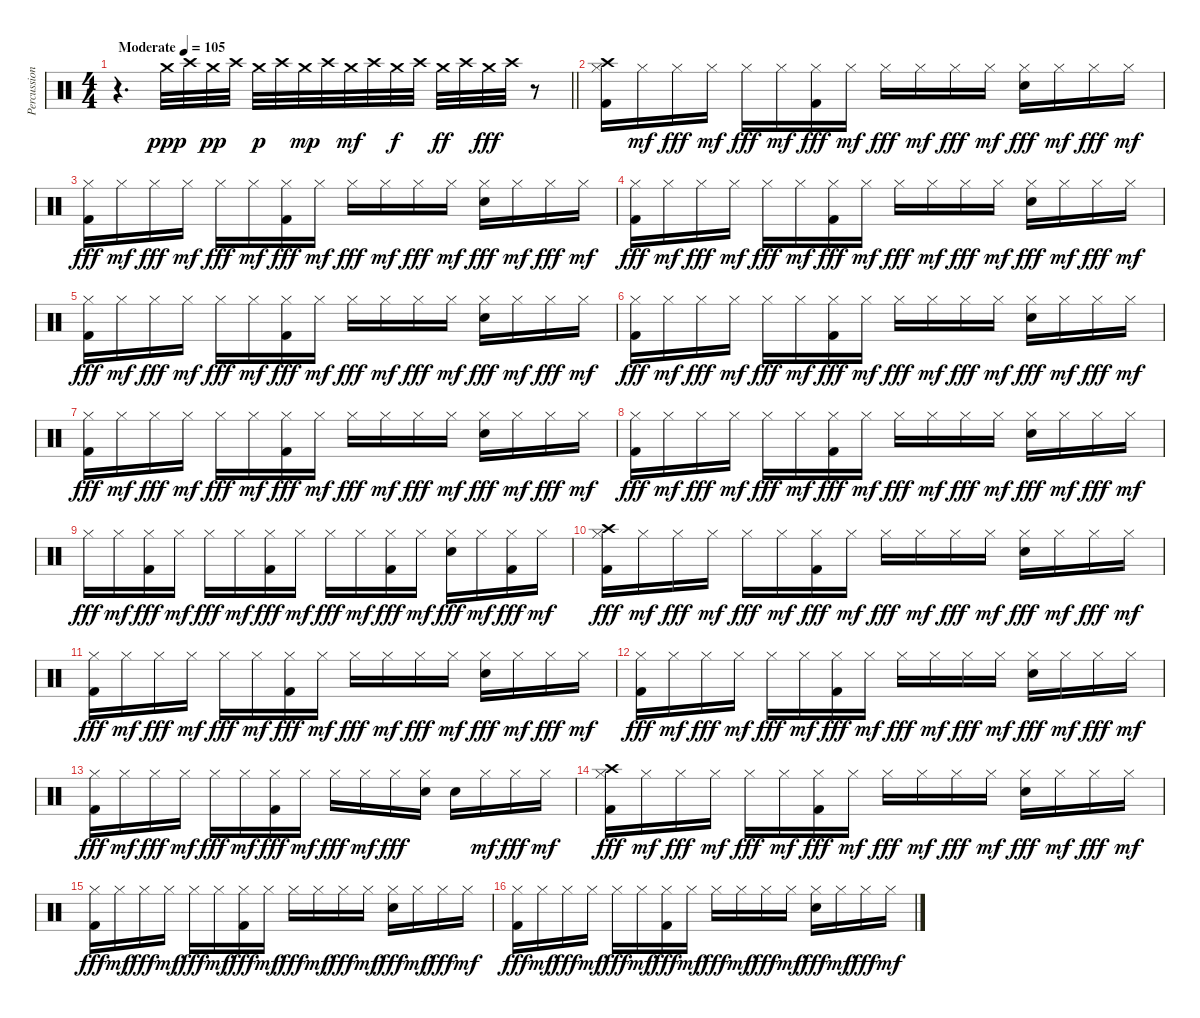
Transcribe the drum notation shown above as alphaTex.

\track ("Percussion" "Percussion") {instrument percussion}
\staff {score}
\articulation defaults
\ts (4 4)
\tempo (105 "Moderate")
\clef neutral
\barLineRight lightlight
\ks c
r.4{d dy ppp} "Crash medium (hit)".32 "Crash high (hit)".32 "Crash medium (hit)".32{dy pp} "Crash high (hit)".32 "Crash medium (hit)".32{dy p} "Crash high (hit)".32 "Crash medium (hit)".32{dy mp} "Crash high (hit)".32 "Crash medium (hit)".32{dy mf} "Crash high (hit)".32 "Crash medium (hit)".32{dy f} "Crash high (hit)".32 "Crash medium (hit)".32{dy ff} "Crash high (hit)".32 "Crash medium (hit)".32{dy fff} "Crash high (hit)".32 r.8 |
("Crash high (hit)" "Hi-Hat (closed)" "Kick (hit) 2").16 "Hi-Hat (closed)".16{dy mf} "Hi-Hat (closed)".16{dy fff} "Hi-Hat (closed)".16{dy mf} "Hi-Hat (closed)".16{dy fff} "Hi-Hat (closed)".16{dy mf} ("Hi-Hat (closed)" "Kick (hit) 2").16{dy fff} "Hi-Hat (closed)".16{dy mf} "Hi-Hat (closed)".16{dy fff} "Hi-Hat (closed)".16{dy mf} "Hi-Hat (closed)".16{dy fff} "Hi-Hat (closed)".16{dy mf} ("Hi-Hat (closed)" "Electric Snare (hit)").16{dy fff} "Hi-Hat (closed)".16{dy mf} "Hi-Hat (closed)".16{dy fff} "Hi-Hat (closed)".16{dy mf} |
("Hi-Hat (closed)" "Kick (hit) 2").16{dy fff} "Hi-Hat (closed)".16{dy mf} "Hi-Hat (closed)".16{dy fff} "Hi-Hat (closed)".16{dy mf} "Hi-Hat (closed)".16{dy fff} "Hi-Hat (closed)".16{dy mf} ("Hi-Hat (closed)" "Kick (hit) 2").16{dy fff} "Hi-Hat (closed)".16{dy mf} "Hi-Hat (closed)".16{dy fff} "Hi-Hat (closed)".16{dy mf} "Hi-Hat (closed)".16{dy fff} "Hi-Hat (closed)".16{dy mf} ("Hi-Hat (closed)" "Electric Snare (hit)").16{dy fff} "Hi-Hat (closed)".16{dy mf} "Hi-Hat (closed)".16{dy fff} "Hi-Hat (closed)".16{dy mf} |
("Hi-Hat (closed)" "Kick (hit) 2").16{dy fff} "Hi-Hat (closed)".16{dy mf} "Hi-Hat (closed)".16{dy fff} "Hi-Hat (closed)".16{dy mf} "Hi-Hat (closed)".16{dy fff} "Hi-Hat (closed)".16{dy mf} ("Hi-Hat (closed)" "Kick (hit) 2").16{dy fff} "Hi-Hat (closed)".16{dy mf} "Hi-Hat (closed)".16{dy fff} "Hi-Hat (closed)".16{dy mf} "Hi-Hat (closed)".16{dy fff} "Hi-Hat (closed)".16{dy mf} ("Hi-Hat (closed)" "Electric Snare (hit)").16{dy fff} "Hi-Hat (closed)".16{dy mf} "Hi-Hat (closed)".16{dy fff} "Hi-Hat (closed)".16{dy mf} |
("Hi-Hat (closed)" "Kick (hit) 2").16{dy fff} "Hi-Hat (closed)".16{dy mf} "Hi-Hat (closed)".16{dy fff} "Hi-Hat (closed)".16{dy mf} "Hi-Hat (closed)".16{dy fff} "Hi-Hat (closed)".16{dy mf} ("Hi-Hat (closed)" "Kick (hit) 2").16{dy fff} "Hi-Hat (closed)".16{dy mf} "Hi-Hat (closed)".16{dy fff} "Hi-Hat (closed)".16{dy mf} "Hi-Hat (closed)".16{dy fff} "Hi-Hat (closed)".16{dy mf} ("Hi-Hat (closed)" "Electric Snare (hit)").16{dy fff} "Hi-Hat (closed)".16{dy mf} "Hi-Hat (closed)".16{dy fff} "Hi-Hat (closed)".16{dy mf} |
("Hi-Hat (closed)" "Kick (hit) 2").16{dy fff} "Hi-Hat (closed)".16{dy mf} "Hi-Hat (closed)".16{dy fff} "Hi-Hat (closed)".16{dy mf} "Hi-Hat (closed)".16{dy fff} "Hi-Hat (closed)".16{dy mf} ("Hi-Hat (closed)" "Kick (hit) 2").16{dy fff} "Hi-Hat (closed)".16{dy mf} "Hi-Hat (closed)".16{dy fff} "Hi-Hat (closed)".16{dy mf} "Hi-Hat (closed)".16{dy fff} "Hi-Hat (closed)".16{dy mf} ("Hi-Hat (closed)" "Electric Snare (hit)").16{dy fff} "Hi-Hat (closed)".16{dy mf} "Hi-Hat (closed)".16{dy fff} "Hi-Hat (closed)".16{dy mf} |
("Hi-Hat (closed)" "Kick (hit) 2").16{dy fff} "Hi-Hat (closed)".16{dy mf} "Hi-Hat (closed)".16{dy fff} "Hi-Hat (closed)".16{dy mf} "Hi-Hat (closed)".16{dy fff} "Hi-Hat (closed)".16{dy mf} ("Hi-Hat (closed)" "Kick (hit) 2").16{dy fff} "Hi-Hat (closed)".16{dy mf} "Hi-Hat (closed)".16{dy fff} "Hi-Hat (closed)".16{dy mf} "Hi-Hat (closed)".16{dy fff} "Hi-Hat (closed)".16{dy mf} ("Hi-Hat (closed)" "Electric Snare (hit)").16{dy fff} "Hi-Hat (closed)".16{dy mf} "Hi-Hat (closed)".16{dy fff} "Hi-Hat (closed)".16{dy mf} |
("Hi-Hat (closed)" "Kick (hit) 2").16{dy fff} "Hi-Hat (closed)".16{dy mf} "Hi-Hat (closed)".16{dy fff} "Hi-Hat (closed)".16{dy mf} "Hi-Hat (closed)".16{dy fff} "Hi-Hat (closed)".16{dy mf} ("Hi-Hat (closed)" "Kick (hit) 2").16{dy fff} "Hi-Hat (closed)".16{dy mf} "Hi-Hat (closed)".16{dy fff} "Hi-Hat (closed)".16{dy mf} "Hi-Hat (closed)".16{dy fff} "Hi-Hat (closed)".16{dy mf} ("Hi-Hat (closed)" "Electric Snare (hit)").16{dy fff} "Hi-Hat (closed)".16{dy mf} "Hi-Hat (closed)".16{dy fff} "Hi-Hat (closed)".16{dy mf} |
"Hi-Hat (closed)".16{dy fff} "Hi-Hat (closed)".16{dy mf} ("Hi-Hat (closed)" "Kick (hit) 2").16{dy fff} "Hi-Hat (closed)".16{dy mf} "Hi-Hat (closed)".16{dy fff} "Hi-Hat (closed)".16{dy mf} ("Hi-Hat (closed)" "Kick (hit) 2").16{dy fff} "Hi-Hat (closed)".16{dy mf} "Hi-Hat (closed)".16{dy fff} "Hi-Hat (closed)".16{dy mf} ("Hi-Hat (closed)" "Kick (hit) 2").16{dy fff} "Hi-Hat (closed)".16{dy mf} ("Hi-Hat (closed)" "Electric Snare (hit)").16{dy fff} "Hi-Hat (closed)".16{dy mf} ("Hi-Hat (closed)" "Kick (hit) 2").16{dy fff} "Hi-Hat (closed)".16{dy mf} |
("Crash high (hit)" "Hi-Hat (closed)" "Kick (hit) 2").16{dy fff} "Hi-Hat (closed)".16{dy mf} "Hi-Hat (closed)".16{dy fff} "Hi-Hat (closed)".16{dy mf} "Hi-Hat (closed)".16{dy fff} "Hi-Hat (closed)".16{dy mf} ("Hi-Hat (closed)" "Kick (hit) 2").16{dy fff} "Hi-Hat (closed)".16{dy mf} "Hi-Hat (closed)".16{dy fff} "Hi-Hat (closed)".16{dy mf} "Hi-Hat (closed)".16{dy fff} "Hi-Hat (closed)".16{dy mf} ("Hi-Hat (closed)" "Electric Snare (hit)").16{dy fff} "Hi-Hat (closed)".16{dy mf} "Hi-Hat (closed)".16{dy fff} "Hi-Hat (closed)".16{dy mf} |
("Hi-Hat (closed)" "Kick (hit) 2").16{dy fff} "Hi-Hat (closed)".16{dy mf} "Hi-Hat (closed)".16{dy fff} "Hi-Hat (closed)".16{dy mf} "Hi-Hat (closed)".16{dy fff} "Hi-Hat (closed)".16{dy mf} ("Hi-Hat (closed)" "Kick (hit) 2").16{dy fff} "Hi-Hat (closed)".16{dy mf} "Hi-Hat (closed)".16{dy fff} "Hi-Hat (closed)".16{dy mf} "Hi-Hat (closed)".16{dy fff} "Hi-Hat (closed)".16{dy mf} ("Hi-Hat (closed)" "Electric Snare (hit)").16{dy fff} "Hi-Hat (closed)".16{dy mf} "Hi-Hat (closed)".16{dy fff} "Hi-Hat (closed)".16{dy mf} |
("Hi-Hat (closed)" "Kick (hit) 2").16{dy fff} "Hi-Hat (closed)".16{dy mf} "Hi-Hat (closed)".16{dy fff} "Hi-Hat (closed)".16{dy mf} "Hi-Hat (closed)".16{dy fff} "Hi-Hat (closed)".16{dy mf} ("Hi-Hat (closed)" "Kick (hit) 2").16{dy fff} "Hi-Hat (closed)".16{dy mf} "Hi-Hat (closed)".16{dy fff} "Hi-Hat (closed)".16{dy mf} "Hi-Hat (closed)".16{dy fff} "Hi-Hat (closed)".16{dy mf} ("Hi-Hat (closed)" "Electric Snare (hit)").16{dy fff} "Hi-Hat (closed)".16{dy mf} "Hi-Hat (closed)".16{dy fff} "Hi-Hat (closed)".16{dy mf} |
("Hi-Hat (closed)" "Kick (hit) 2").16{dy fff} "Hi-Hat (closed)".16{dy mf} "Hi-Hat (closed)".16{dy fff} "Hi-Hat (closed)".16{dy mf} "Hi-Hat (closed)".16{dy fff} "Hi-Hat (closed)".16{dy mf} ("Hi-Hat (closed)" "Kick (hit) 2").16{dy fff} "Hi-Hat (closed)".16{dy mf} "Hi-Hat (closed)".16{dy fff} "Hi-Hat (closed)".16{dy mf} "Hi-Hat (closed)".16{dy fff} ("Hi-Hat (closed)" "Electric Snare (hit)").16 "Electric Snare (hit)".16 "Hi-Hat (closed)".16{dy mf} "Hi-Hat (closed)".16{dy fff} "Hi-Hat (closed)".16{dy mf} |
("Crash high (hit)" "Hi-Hat (closed)" "Kick (hit) 2").16{dy fff} "Hi-Hat (closed)".16{dy mf} "Hi-Hat (closed)".16{dy fff} "Hi-Hat (closed)".16{dy mf} "Hi-Hat (closed)".16{dy fff} "Hi-Hat (closed)".16{dy mf} ("Hi-Hat (closed)" "Kick (hit) 2").16{dy fff} "Hi-Hat (closed)".16{dy mf} "Hi-Hat (closed)".16{dy fff} "Hi-Hat (closed)".16{dy mf} "Hi-Hat (closed)".16{dy fff} "Hi-Hat (closed)".16{dy mf} ("Hi-Hat (closed)" "Electric Snare (hit)").16{dy fff} "Hi-Hat (closed)".16{dy mf} "Hi-Hat (closed)".16{dy fff} "Hi-Hat (closed)".16{dy mf} |
("Hi-Hat (closed)" "Kick (hit) 2").16{dy fff} "Hi-Hat (closed)".16{dy mf} "Hi-Hat (closed)".16{dy fff} "Hi-Hat (closed)".16{dy mf} "Hi-Hat (closed)".16{dy fff} "Hi-Hat (closed)".16{dy mf} ("Hi-Hat (closed)" "Kick (hit) 2").16{dy fff} "Hi-Hat (closed)".16{dy mf} "Hi-Hat (closed)".16{dy fff} "Hi-Hat (closed)".16{dy mf} "Hi-Hat (closed)".16{dy fff} "Hi-Hat (closed)".16{dy mf} ("Hi-Hat (closed)" "Electric Snare (hit)").16{dy fff} "Hi-Hat (closed)".16{dy mf} "Hi-Hat (closed)".16{dy fff} "Hi-Hat (closed)".16{dy mf} |
("Hi-Hat (closed)" "Kick (hit) 2").16{dy fff} "Hi-Hat (closed)".16{dy mf} "Hi-Hat (closed)".16{dy fff} "Hi-Hat (closed)".16{dy mf} "Hi-Hat (closed)".16{dy fff} "Hi-Hat (closed)".16{dy mf} ("Hi-Hat (closed)" "Kick (hit) 2").16{dy fff} "Hi-Hat (closed)".16{dy mf} "Hi-Hat (closed)".16{dy fff} "Hi-Hat (closed)".16{dy mf} "Hi-Hat (closed)".16{dy fff} "Hi-Hat (closed)".16{dy mf} ("Hi-Hat (closed)" "Electric Snare (hit)").16{dy fff} "Hi-Hat (closed)".16{dy mf} "Hi-Hat (closed)".16{dy fff} "Hi-Hat (closed)".16{dy mf}
